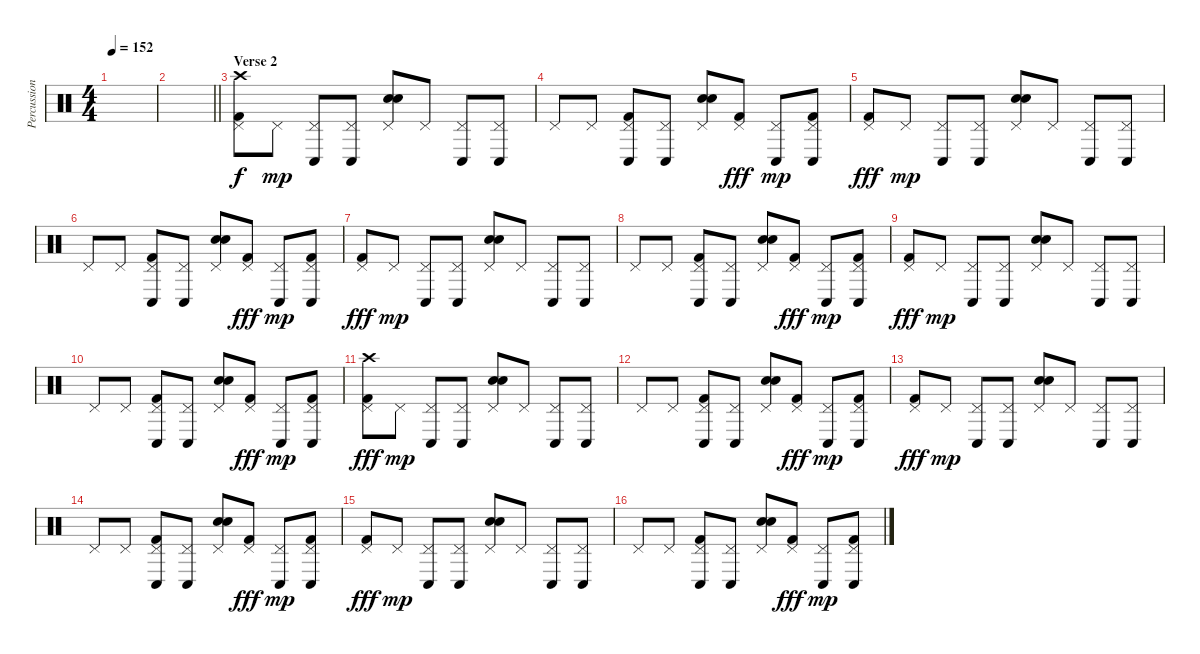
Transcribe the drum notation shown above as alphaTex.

\track ("Percussion" "Percussion") {instrument percussion}
\staff {score}
\articulation defaults
\ts (4 4)
\tempo 152
\clef neutral
\ks c
|
\barLineRight lightlight
|
\section ("" "Verse 2")
("Pedal Hi-Hat (hit)" "Kick (hit) 2" "Crash high (hit)").8 "Pedal Hi-Hat (hit)".8{dy mp} ("Pedal Hi-Hat (hit)" "Conga low (hit)").8 ("Pedal Hi-Hat (hit)" "Conga low (hit)").8 ("Pedal Hi-Hat (hit)" "Electric Snare (hit)" "Hand Clap (hit)").8 "Pedal Hi-Hat (hit)".8 ("Pedal Hi-Hat (hit)" "Conga low (hit)").8 ("Pedal Hi-Hat (hit)" "Conga low (hit)").8 |
"Pedal Hi-Hat (hit)".8 "Pedal Hi-Hat (hit)".8 ("Pedal Hi-Hat (hit)" "Kick (hit) 2" "Conga low (hit)").8 ("Pedal Hi-Hat (hit)" "Conga low (hit)").8 ("Pedal Hi-Hat (hit)" "Electric Snare (hit)" "Hand Clap (hit)").8 ("Pedal Hi-Hat (hit)" "Kick (hit) 2").8{dy fff} ("Pedal Hi-Hat (hit)" "Conga low (hit)").8{dy mp} ("Pedal Hi-Hat (hit)" "Kick (hit) 2" "Conga low (hit)").8 |
("Pedal Hi-Hat (hit)" "Kick (hit) 2").8{dy fff} "Pedal Hi-Hat (hit)".8{dy mp} ("Pedal Hi-Hat (hit)" "Conga low (hit)").8 ("Pedal Hi-Hat (hit)" "Conga low (hit)").8 ("Pedal Hi-Hat (hit)" "Electric Snare (hit)" "Hand Clap (hit)").8 "Pedal Hi-Hat (hit)".8 ("Pedal Hi-Hat (hit)" "Conga low (hit)").8 ("Pedal Hi-Hat (hit)" "Conga low (hit)").8 |
"Pedal Hi-Hat (hit)".8 "Pedal Hi-Hat (hit)".8 ("Pedal Hi-Hat (hit)" "Kick (hit) 2" "Conga low (hit)").8 ("Pedal Hi-Hat (hit)" "Conga low (hit)").8 ("Pedal Hi-Hat (hit)" "Electric Snare (hit)" "Hand Clap (hit)").8 ("Pedal Hi-Hat (hit)" "Kick (hit) 2").8{dy fff} ("Pedal Hi-Hat (hit)" "Conga low (hit)").8{dy mp} ("Pedal Hi-Hat (hit)" "Kick (hit) 2" "Conga low (hit)").8 |
("Pedal Hi-Hat (hit)" "Kick (hit) 2").8{dy fff} "Pedal Hi-Hat (hit)".8{dy mp} ("Pedal Hi-Hat (hit)" "Conga low (hit)").8 ("Pedal Hi-Hat (hit)" "Conga low (hit)").8 ("Pedal Hi-Hat (hit)" "Electric Snare (hit)" "Hand Clap (hit)").8 "Pedal Hi-Hat (hit)".8 ("Pedal Hi-Hat (hit)" "Conga low (hit)").8 ("Pedal Hi-Hat (hit)" "Conga low (hit)").8 |
"Pedal Hi-Hat (hit)".8 "Pedal Hi-Hat (hit)".8 ("Pedal Hi-Hat (hit)" "Kick (hit) 2" "Conga low (hit)").8 ("Pedal Hi-Hat (hit)" "Conga low (hit)").8 ("Pedal Hi-Hat (hit)" "Electric Snare (hit)" "Hand Clap (hit)").8 ("Pedal Hi-Hat (hit)" "Kick (hit) 2").8{dy fff} ("Pedal Hi-Hat (hit)" "Conga low (hit)").8{dy mp} ("Pedal Hi-Hat (hit)" "Kick (hit) 2" "Conga low (hit)").8 |
("Pedal Hi-Hat (hit)" "Kick (hit) 2").8{dy fff} "Pedal Hi-Hat (hit)".8{dy mp} ("Pedal Hi-Hat (hit)" "Conga low (hit)").8 ("Pedal Hi-Hat (hit)" "Conga low (hit)").8 ("Pedal Hi-Hat (hit)" "Electric Snare (hit)" "Hand Clap (hit)").8 "Pedal Hi-Hat (hit)".8 ("Pedal Hi-Hat (hit)" "Conga low (hit)").8 ("Pedal Hi-Hat (hit)" "Conga low (hit)").8 |
"Pedal Hi-Hat (hit)".8 "Pedal Hi-Hat (hit)".8 ("Pedal Hi-Hat (hit)" "Kick (hit) 2" "Conga low (hit)").8 ("Pedal Hi-Hat (hit)" "Conga low (hit)").8 ("Pedal Hi-Hat (hit)" "Electric Snare (hit)" "Hand Clap (hit)").8 ("Pedal Hi-Hat (hit)" "Kick (hit) 2").8{dy fff} ("Pedal Hi-Hat (hit)" "Conga low (hit)").8{dy mp} ("Pedal Hi-Hat (hit)" "Kick (hit) 2" "Conga low (hit)").8 |
("Pedal Hi-Hat (hit)" "Kick (hit) 2" "Crash high (hit)").8{dy fff} "Pedal Hi-Hat (hit)".8{dy mp} ("Pedal Hi-Hat (hit)" "Conga low (hit)").8 ("Pedal Hi-Hat (hit)" "Conga low (hit)").8 ("Pedal Hi-Hat (hit)" "Electric Snare (hit)" "Hand Clap (hit)").8 "Pedal Hi-Hat (hit)".8 ("Pedal Hi-Hat (hit)" "Conga low (hit)").8 ("Pedal Hi-Hat (hit)" "Conga low (hit)").8 |
"Pedal Hi-Hat (hit)".8 "Pedal Hi-Hat (hit)".8 ("Pedal Hi-Hat (hit)" "Kick (hit) 2" "Conga low (hit)").8 ("Pedal Hi-Hat (hit)" "Conga low (hit)").8 ("Pedal Hi-Hat (hit)" "Electric Snare (hit)" "Hand Clap (hit)").8 ("Pedal Hi-Hat (hit)" "Kick (hit) 2").8{dy fff} ("Pedal Hi-Hat (hit)" "Conga low (hit)").8{dy mp} ("Pedal Hi-Hat (hit)" "Kick (hit) 2" "Conga low (hit)").8 |
("Pedal Hi-Hat (hit)" "Kick (hit) 2").8{dy fff} "Pedal Hi-Hat (hit)".8{dy mp} ("Pedal Hi-Hat (hit)" "Conga low (hit)").8 ("Pedal Hi-Hat (hit)" "Conga low (hit)").8 ("Pedal Hi-Hat (hit)" "Electric Snare (hit)" "Hand Clap (hit)").8 "Pedal Hi-Hat (hit)".8 ("Pedal Hi-Hat (hit)" "Conga low (hit)").8 ("Pedal Hi-Hat (hit)" "Conga low (hit)").8 |
"Pedal Hi-Hat (hit)".8 "Pedal Hi-Hat (hit)".8 ("Pedal Hi-Hat (hit)" "Kick (hit) 2" "Conga low (hit)").8 ("Pedal Hi-Hat (hit)" "Conga low (hit)").8 ("Pedal Hi-Hat (hit)" "Electric Snare (hit)" "Hand Clap (hit)").8 ("Pedal Hi-Hat (hit)" "Kick (hit) 2").8{dy fff} ("Pedal Hi-Hat (hit)" "Conga low (hit)").8{dy mp} ("Pedal Hi-Hat (hit)" "Kick (hit) 2" "Conga low (hit)").8 |
("Pedal Hi-Hat (hit)" "Kick (hit) 2").8{dy fff} "Pedal Hi-Hat (hit)".8{dy mp} ("Pedal Hi-Hat (hit)" "Conga low (hit)").8 ("Pedal Hi-Hat (hit)" "Conga low (hit)").8 ("Pedal Hi-Hat (hit)" "Electric Snare (hit)" "Hand Clap (hit)").8 "Pedal Hi-Hat (hit)".8 ("Pedal Hi-Hat (hit)" "Conga low (hit)").8 ("Pedal Hi-Hat (hit)" "Conga low (hit)").8 |
"Pedal Hi-Hat (hit)".8 "Pedal Hi-Hat (hit)".8 ("Pedal Hi-Hat (hit)" "Kick (hit) 2" "Conga low (hit)").8 ("Pedal Hi-Hat (hit)" "Conga low (hit)").8 ("Pedal Hi-Hat (hit)" "Electric Snare (hit)" "Hand Clap (hit)").8 ("Pedal Hi-Hat (hit)" "Kick (hit) 2").8{dy fff} ("Pedal Hi-Hat (hit)" "Conga low (hit)").8{dy mp} ("Pedal Hi-Hat (hit)" "Kick (hit) 2" "Conga low (hit)").8
